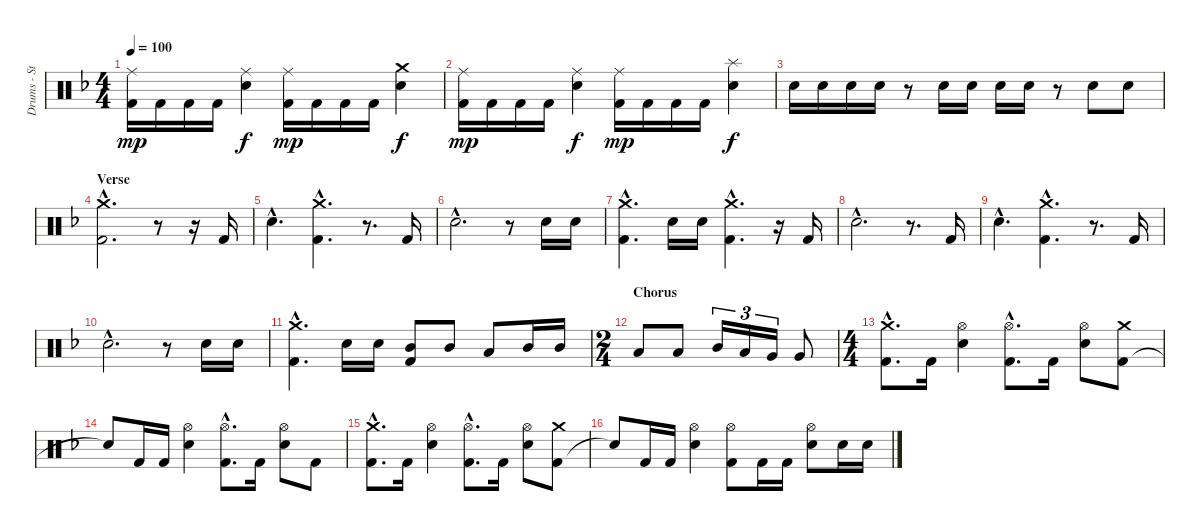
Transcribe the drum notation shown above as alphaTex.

\track ("Drums - Steve Wacholz" "Drums - St") {instrument percussion}
\staff {score}
\articulation defaults
\ts (4 4)
\tempo 100
\clef neutral
\ks f
("Kick (hit) 2" "Ride (middle)").16{dy mp} "Kick (hit) 2".16 "Kick (hit) 2".16 "Kick (hit) 2".16 ("Electric Snare (hit)" "Ride (middle)").4{dy f} ("Kick (hit) 2" "Ride (middle)").16{dy mp} "Kick (hit) 2".16 "Kick (hit) 2".16 "Kick (hit) 2".16 ("Electric Snare (hit)" "Crash medium (hit)").4{dy f} |
("Kick (hit) 2" "Ride (middle)").16{dy mp} "Kick (hit) 2".16 "Kick (hit) 2".16 "Kick (hit) 2".16 ("Electric Snare (hit)" "Ride (middle)").4{dy f} ("Kick (hit) 2" "Ride (middle)").16{dy mp} "Kick (hit) 2".16 "Kick (hit) 2".16 "Kick (hit) 2".16 ("Electric Snare (hit)" "Splash (hit)").4{dy f} |
"Electric Snare (hit)".16 "Electric Snare (hit)".16 "Electric Snare (hit)".16 "Electric Snare (hit)".16 r.8 "Electric Snare (hit)".16 "Electric Snare (hit)".16 "Electric Snare (hit)".16 "Electric Snare (hit)".16 r.8 "Electric Snare (hit)".8 "Electric Snare (hit)".8 |
\section ("" "Verse")
("Kick (hit) 2"{hac} "Crash medium (hit)"{hac}).2{d} r.8 r.16 "Kick (hit) 2".16 |
"Electric Snare (hit)"{hac}.4{d} ("Kick (hit) 2"{hac} "Crash medium (hit)"{hac}).4{d} r.8{d} "Kick (hit) 2".16 |
"Electric Snare (hit)"{hac}.2{d} r.8 "Electric Snare (hit)".16 "Electric Snare (hit)".16 |
("Kick (hit) 2"{hac} "Crash medium (hit)"{hac}).4{d} "Electric Snare (hit)".16 "Electric Snare (hit)".16 ("Kick (hit) 2"{hac} "Crash medium (hit)"{hac}).4{d} r.16 "Kick (hit) 2".16 |
"Electric Snare (hit)"{hac}.2{d} r.8{d} "Kick (hit) 2".16 |
"Electric Snare (hit)"{hac}.4{d} ("Kick (hit) 2"{hac} "Crash medium (hit)"{hac}).4{d} r.8{d} "Kick (hit) 2".16 |
"Electric Snare (hit)"{hac}.2{d} r.8 "Electric Snare (hit)".16 "Electric Snare (hit)".16 |
("Kick (hit) 2"{hac} "Crash medium (hit)"{hac}).4{d} "Electric Snare (hit)".16 "Electric Snare (hit)".16 ("Kick (hit) 2" "Mid Tom (hit)").8 "Mid Tom (hit)".8 "Low Tom (hit)".8 "Mid Tom (hit)".16 "Mid Tom (hit)".16 |
\ts (2 4)
\section ("" "Chorus")
"Low Tom (hit)".8 "Low Tom (hit)".8 "Mid Tom (hit)".16{tu (3 2)} "Low Tom (hit)".16{tu (3 2)} "Very Low Tom (hit)".16{tu (3 2)} "Very Low Tom (hit)".8 |
\ts (4 4)
("Kick (hit) 2"{hac} "Crash medium (hit)"{hac}).8{d} "Kick (hit) 2".16 ("Electric Snare (hit)" "Hi-Hat (open)").4 ("Kick (hit) 2"{hac} "Hi-Hat (open)"{hac}).8{d} "Kick (hit) 2".16 ("Electric Snare (hit)" "Hi-Hat (open)").8 ("Kick (hit) 2" "Crash medium (hit)").8 |
"Snare (hit)"{t}.8 "Kick (hit) 2".16 "Kick (hit) 2".16 ("Electric Snare (hit)" "Hi-Hat (open)").4 ("Kick (hit) 2"{hac} "Hi-Hat (open)"{hac}).8{d} "Kick (hit) 2".16 ("Electric Snare (hit)" "Hi-Hat (open)").8 "Kick (hit) 2".8 |
("Kick (hit) 2"{hac} "Crash medium (hit)"{hac}).8{d} "Kick (hit) 2".16 ("Electric Snare (hit)" "Hi-Hat (open)").4 ("Kick (hit) 2"{hac} "Hi-Hat (open)"{hac}).8{d} "Kick (hit) 2".16 ("Electric Snare (hit)" "Hi-Hat (open)").8 ("Kick (hit) 2" "Crash medium (hit)").8 |
"Snare (hit)"{t}.8 "Kick (hit) 2".16 "Kick (hit) 2".16 ("Electric Snare (hit)" "Hi-Hat (open)").4 ("Kick (hit) 2" "Hi-Hat (open)").8 "Kick (hit) 2".16 "Kick (hit) 2".16 ("Electric Snare (hit)" "Hi-Hat (open)").8 "Electric Snare (hit)".16 "Electric Snare (hit)".16
